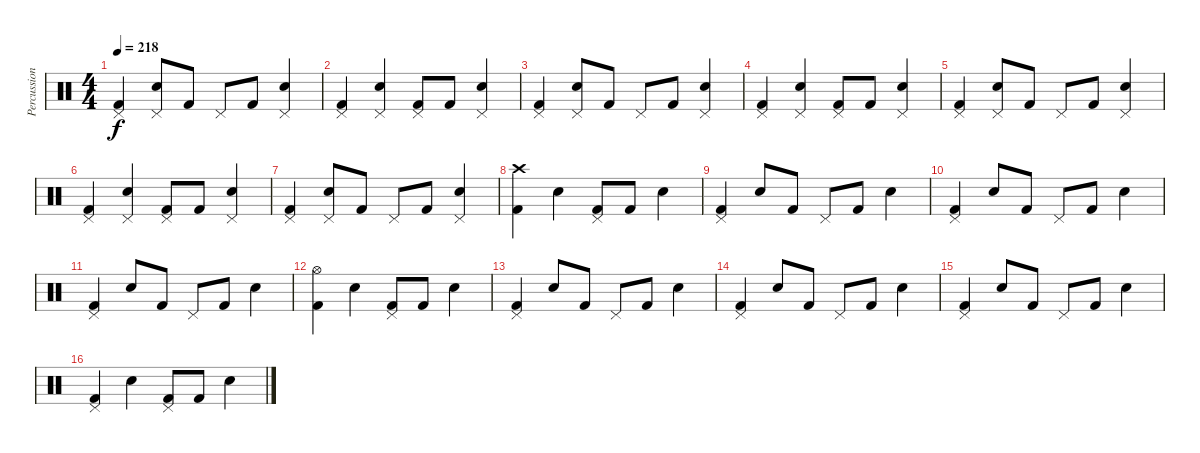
\track ("Percussion" "Percussion") {instrument percussion}
\staff {score}
\articulation defaults
\ts (4 4)
\tempo 218
\clef neutral
\ks c
("Kick (hit) 2" "Pedal Hi-Hat (hit)").4{dy f} ("Snare (hit) 2" "Pedal Hi-Hat (hit)").8 "Kick (hit) 2".8 "Pedal Hi-Hat (hit)".8 "Kick (hit) 2".8 ("Snare (hit) 2" "Pedal Hi-Hat (hit)").4 |
("Kick (hit) 2" "Pedal Hi-Hat (hit)").4 ("Snare (hit) 2" "Pedal Hi-Hat (hit)").4 ("Kick (hit) 2" "Pedal Hi-Hat (hit)").8 "Kick (hit) 2".8 ("Snare (hit) 2" "Pedal Hi-Hat (hit)").4 |
("Kick (hit) 2" "Pedal Hi-Hat (hit)").4 ("Snare (hit) 2" "Pedal Hi-Hat (hit)").8 "Kick (hit) 2".8 "Pedal Hi-Hat (hit)".8 "Kick (hit) 2".8 ("Snare (hit) 2" "Pedal Hi-Hat (hit)").4 |
("Kick (hit) 2" "Pedal Hi-Hat (hit)").4 ("Snare (hit) 2" "Pedal Hi-Hat (hit)").4 ("Kick (hit) 2" "Pedal Hi-Hat (hit)").8 "Kick (hit) 2".8 ("Snare (hit) 2" "Pedal Hi-Hat (hit)").4 |
("Kick (hit) 2" "Pedal Hi-Hat (hit)").4 ("Snare (hit) 2" "Pedal Hi-Hat (hit)").8 "Kick (hit) 2".8 "Pedal Hi-Hat (hit)".8 "Kick (hit) 2".8 ("Snare (hit) 2" "Pedal Hi-Hat (hit)").4 |
("Kick (hit) 2" "Pedal Hi-Hat (hit)").4 ("Snare (hit) 2" "Pedal Hi-Hat (hit)").4 ("Kick (hit) 2" "Pedal Hi-Hat (hit)").8 "Kick (hit) 2".8 ("Snare (hit) 2" "Pedal Hi-Hat (hit)").4 |
("Kick (hit) 2" "Pedal Hi-Hat (hit)").4 ("Snare (hit) 2" "Pedal Hi-Hat (hit)").8 "Kick (hit) 2".8 "Pedal Hi-Hat (hit)".8 "Kick (hit) 2".8 ("Snare (hit) 2" "Pedal Hi-Hat (hit)").4 |
("Kick (hit) 2" "Crash high (hit)").4 "Snare (hit) 2".4 ("Kick (hit) 2" "Pedal Hi-Hat (hit)").8 "Kick (hit) 2".8 "Snare (hit) 2".4 |
("Kick (hit) 2" "Pedal Hi-Hat (hit)").4 "Snare (hit) 2".8 "Kick (hit) 2".8 "Pedal Hi-Hat (hit)".8 "Kick (hit) 2".8 "Snare (hit) 2".4 |
("Kick (hit) 2" "Pedal Hi-Hat (hit)").4 "Snare (hit) 2".8 "Kick (hit) 2".8 "Pedal Hi-Hat (hit)".8 "Kick (hit) 2".8 "Snare (hit) 2".4 |
("Kick (hit) 2" "Pedal Hi-Hat (hit)").4 "Snare (hit) 2".8 "Kick (hit) 2".8 "Pedal Hi-Hat (hit)".8 "Kick (hit) 2".8 "Snare (hit) 2".4 |
("Kick (hit) 2" "Hi-Hat (open)").4 "Snare (hit) 2".4 ("Kick (hit) 2" "Pedal Hi-Hat (hit)").8 "Kick (hit) 2".8 "Snare (hit) 2".4 |
("Kick (hit) 2" "Pedal Hi-Hat (hit)").4 "Snare (hit) 2".8 "Kick (hit) 2".8 "Pedal Hi-Hat (hit)".8 "Kick (hit) 2".8 "Snare (hit) 2".4 |
("Kick (hit) 2" "Pedal Hi-Hat (hit)").4 "Snare (hit) 2".8 "Kick (hit) 2".8 "Pedal Hi-Hat (hit)".8 "Kick (hit) 2".8 "Snare (hit) 2".4 |
("Kick (hit) 2" "Pedal Hi-Hat (hit)").4 "Snare (hit) 2".8 "Kick (hit) 2".8 "Pedal Hi-Hat (hit)".8 "Kick (hit) 2".8 "Snare (hit) 2".4 |
("Kick (hit) 2" "Pedal Hi-Hat (hit)").4 "Snare (hit) 2".4 ("Kick (hit) 2" "Pedal Hi-Hat (hit)").8 "Kick (hit) 2".8 "Snare (hit) 2".4
